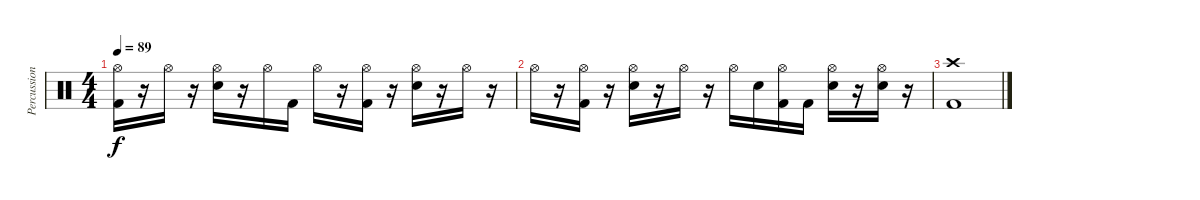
\track ("Percussion" "Percussion") {instrument percussion}
\staff {score}
\articulation defaults
\ts (4 4)
\tempo 89
\clef neutral
\ks c
("Kick (hit) 2" "Hi-Hat (open)").16{dy f} r.16 "Hi-Hat (open)".16 r.16 ("Snare (hit) 2" "Hi-Hat (open)").16 r.16 "Hi-Hat (open)".16 "Kick (hit) 2".16 "Hi-Hat (open)".16 r.16 ("Kick (hit) 2" "Hi-Hat (open)").16 r.16 ("Snare (hit) 2" "Hi-Hat (open)").16 r.16 "Hi-Hat (open)".16 r.16 |
"Hi-Hat (open)".16 r.16 ("Kick (hit) 2" "Hi-Hat (open)").16 r.16 ("Snare (hit) 2" "Hi-Hat (open)").16 r.16 "Hi-Hat (open)".16 r.16 "Hi-Hat (open)".16 "Snare (hit) 2".16 ("Kick (hit) 2" "Hi-Hat (open)").16 "Kick (hit) 2".16 ("Snare (hit) 2" "Hi-Hat (open)").16 r.16 ("Snare (hit) 2" "Hi-Hat (open)").16 r.16 |
("Kick (hit) 2" "Crash high (hit)").1
